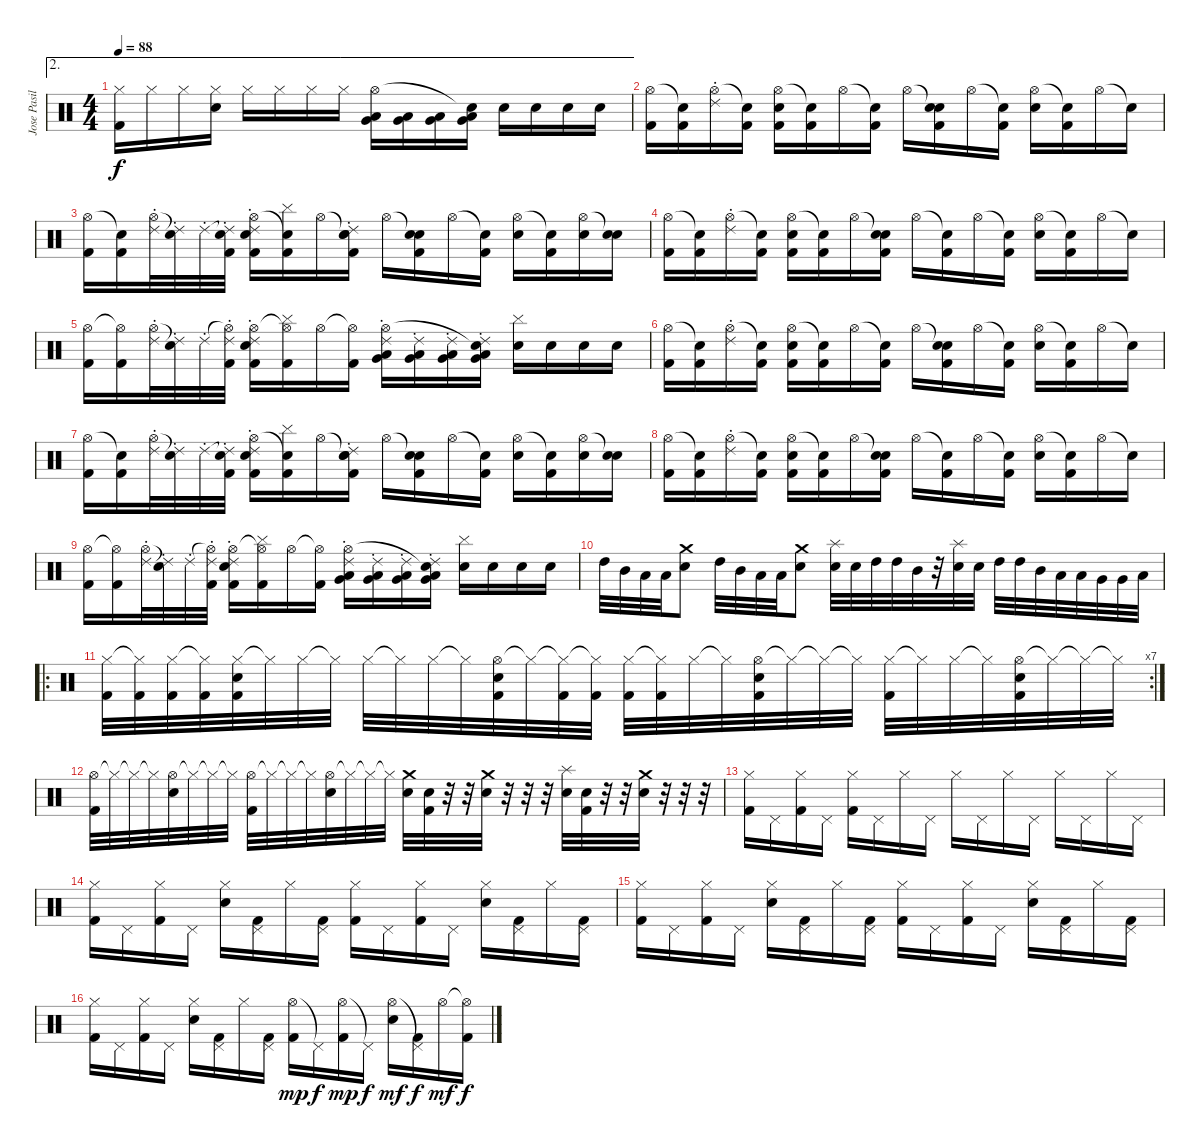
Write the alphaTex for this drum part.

\track ("Jose Pasillas/Dj Kilmore" "Jose Pasil") {instrument percussion}
\staff {score}
\articulation defaults
\ae 2
\ts (4 4)
\tempo 88
\clef neutral
\ks c
("Hi-Hat (closed)" "Kick (hit) 2").16{dy f} "Hi-Hat (closed)".16 "Hi-Hat (closed)".16 ("Hi-Hat (closed)" "Electric Snare (hit)").16 "Hi-Hat (closed)".16 "Hi-Hat (closed)".16 "Hi-Hat (closed)".16 "Hi-Hat (closed)".16 ("Low Tom (hit)" "Very Low Tom (hit)" "Hi-Hat (open)").16 ("Low Tom (hit)" "Very Low Tom (hit)").16 ("Low Tom (hit)" "Very Low Tom (hit)").16 ("Low Tom (hit)" "Very Low Tom (hit)" "Snare (hit)"{t}).16 "Electric Snare (hit)".16 "Electric Snare (hit)".16 "Electric Snare (hit)".16 "Electric Snare (hit)".16 |
("Hi-Hat (open)" "Kick (hit) 2").16 ("Snare (hit)"{t} "Kick (hit) 2").16 ("Hi-Hat (open)" "Ride (choke) 2").16 ("Snare (hit)"{t} "Kick (hit) 2").16 ("Hi-Hat (open)" "Electric Snare (hit)" "Kick (hit) 2").16 ("Snare (hit)"{t} "Kick (hit) 2").16 "Hi-Hat (open)".16 ("Snare (hit)"{t} "Kick (hit) 2").16 "Hi-Hat (open)".16 ("Snare (hit)"{t} "Electric Snare (hit)" "Kick (hit) 2").16 "Hi-Hat (open)".16 ("Snare (hit)"{t} "Kick (hit) 2").16 ("Hi-Hat (open)" "Electric Snare (hit)").16 ("Snare (hit)"{t} "Kick (hit) 2").16 "Hi-Hat (open)".16 "Snare (hit)"{t}.16 |
("Hi-Hat (open)" "Kick (hit) 2").16 ("Snare (hit)"{t} "Kick (hit) 2").16 ("Hi-Hat (open)" "Ride (choke) 2").32 ("Snare (hit)"{t} "Ride (choke) 2").32 "Ride (choke) 2".32 ("Snare (hit)"{t} "Ride (choke) 2" "Kick (hit) 2").32 ("Hi-Hat (open)" "Electric Snare (hit)" "Ride (choke) 2" "Kick (hit) 2").16 ("Snare (hit)"{t} "Cymbal (hit)" "Kick (hit) 2").16 "Hi-Hat (open)".16 ("Snare (hit)"{t} "Electric Snare (hit)" "Ride (choke) 2" "Kick (hit) 2").16 "Hi-Hat (open)".16 ("Snare (hit)"{t} "Electric Snare (hit)" "Kick (hit) 2").16 "Hi-Hat (open)".16 ("Snare (hit)"{t} "Kick (hit) 2").16 ("Hi-Hat (open)" "Electric Snare (hit)").16 ("Snare (hit)"{t} "Kick (hit) 2").16 ("Hi-Hat (open)" "Electric Snare (hit)").16 ("Snare (hit)"{t} "Electric Snare (hit)").16 |
("Hi-Hat (open)" "Kick (hit) 2").16 ("Snare (hit)"{t} "Kick (hit) 2").16 ("Hi-Hat (open)" "Ride (choke) 2").16 ("Snare (hit)"{t} "Kick (hit) 2").16 ("Hi-Hat (open)" "Electric Snare (hit)" "Kick (hit) 2").16 ("Snare (hit)"{t} "Kick (hit) 2").16 "Hi-Hat (open)".16 ("Snare (hit)"{t} "Electric Snare (hit)" "Kick (hit) 2").16 "Hi-Hat (open)".16 ("Snare (hit)"{t} "Kick (hit) 2").16 "Hi-Hat (open)".16 ("Snare (hit)"{t} "Kick (hit) 2").16 ("Hi-Hat (open)" "Electric Snare (hit)").16 ("Snare (hit)"{t} "Kick (hit) 2").16 "Hi-Hat (open)".16 "Snare (hit)"{t}.16 |
("Hi-Hat (open)" "Kick (hit) 2").16 ("Hi-Hat (open)"{t} "Kick (hit) 2").16 ("Hi-Hat (open)" "Ride (choke) 2").32 ("Snare (hit)"{t} "Ride (choke) 2").32 "Ride (choke) 2".32 ("Hi-Hat (open)"{t} "Ride (choke) 2" "Kick (hit) 2").32 ("Hi-Hat (open)" "Electric Snare (hit)" "Ride (choke) 2" "Kick (hit) 2").16 ("Hi-Hat (open)"{t} "Cymbal (hit)" "Kick (hit) 2").16 "Hi-Hat (open)".16 ("Hi-Hat (open)"{t} "Kick (hit) 2").16 ("Low Tom (hit)" "Very Low Tom (hit)" "Ride (choke) 2" "Hi-Hat (open)").16 ("Low Tom (hit)" "Very Low Tom (hit)" "Ride (choke) 2").16 ("Low Tom (hit)" "Very Low Tom (hit)" "Ride (choke) 2").16 ("Low Tom (hit)" "Very Low Tom (hit)" "Ride (choke) 2" "Snare (hit)"{t}).16 ("Electric Snare (hit)" "Cymbal (hit)").16 "Electric Snare (hit)".16 "Electric Snare (hit)".16 "Electric Snare (hit)".16 |
("Hi-Hat (open)" "Kick (hit) 2").16 ("Snare (hit)"{t} "Kick (hit) 2").16 ("Hi-Hat (open)" "Ride (choke) 2").16 ("Snare (hit)"{t} "Kick (hit) 2").16 ("Hi-Hat (open)" "Electric Snare (hit)" "Kick (hit) 2").16 ("Snare (hit)"{t} "Kick (hit) 2").16 "Hi-Hat (open)".16 ("Snare (hit)"{t} "Kick (hit) 2").16 "Hi-Hat (open)".16 ("Snare (hit)"{t} "Electric Snare (hit)" "Kick (hit) 2").16 "Hi-Hat (open)".16 ("Snare (hit)"{t} "Kick (hit) 2").16 ("Hi-Hat (open)" "Electric Snare (hit)").16 ("Snare (hit)"{t} "Kick (hit) 2").16 "Hi-Hat (open)".16 "Snare (hit)"{t}.16 |
("Hi-Hat (open)" "Kick (hit) 2").16 ("Snare (hit)"{t} "Kick (hit) 2").16 ("Hi-Hat (open)" "Ride (choke) 2").32 ("Snare (hit)"{t} "Ride (choke) 2").32 "Ride (choke) 2".32 ("Snare (hit)"{t} "Ride (choke) 2" "Kick (hit) 2").32 ("Hi-Hat (open)" "Electric Snare (hit)" "Ride (choke) 2" "Kick (hit) 2").16 ("Snare (hit)"{t} "Cymbal (hit)" "Kick (hit) 2").16 "Hi-Hat (open)".16 ("Snare (hit)"{t} "Electric Snare (hit)" "Ride (choke) 2" "Kick (hit) 2").16 "Hi-Hat (open)".16 ("Snare (hit)"{t} "Electric Snare (hit)" "Kick (hit) 2").16 "Hi-Hat (open)".16 ("Snare (hit)"{t} "Kick (hit) 2").16 ("Hi-Hat (open)" "Electric Snare (hit)").16 ("Snare (hit)"{t} "Kick (hit) 2").16 ("Hi-Hat (open)" "Electric Snare (hit)").16 ("Snare (hit)"{t} "Electric Snare (hit)").16 |
("Hi-Hat (open)" "Kick (hit) 2").16 ("Snare (hit)"{t} "Kick (hit) 2").16 ("Hi-Hat (open)" "Ride (choke) 2").16 ("Snare (hit)"{t} "Kick (hit) 2").16 ("Hi-Hat (open)" "Electric Snare (hit)" "Kick (hit) 2").16 ("Snare (hit)"{t} "Kick (hit) 2").16 "Hi-Hat (open)".16 ("Snare (hit)"{t} "Electric Snare (hit)" "Kick (hit) 2").16 "Hi-Hat (open)".16 ("Snare (hit)"{t} "Kick (hit) 2").16 "Hi-Hat (open)".16 ("Snare (hit)"{t} "Kick (hit) 2").16 ("Hi-Hat (open)" "Electric Snare (hit)").16 ("Snare (hit)"{t} "Kick (hit) 2").16 "Hi-Hat (open)".16 "Snare (hit)"{t}.16 |
("Hi-Hat (open)" "Kick (hit) 2").16 ("Hi-Hat (open)"{t} "Kick (hit) 2").16 ("Hi-Hat (open)" "Ride (choke) 2").32 ("Snare (hit)"{t} "Ride (choke) 2").32 "Ride (choke) 2".32 ("Hi-Hat (open)"{t} "Ride (choke) 2" "Kick (hit) 2").32 ("Hi-Hat (open)" "Electric Snare (hit)" "Ride (choke) 2" "Kick (hit) 2").16 ("Hi-Hat (open)"{t} "Cymbal (hit)" "Kick (hit) 2").16 "Hi-Hat (open)".16 ("Hi-Hat (open)"{t} "Kick (hit) 2").16 ("Low Tom (hit)" "Very Low Tom (hit)" "Ride (choke) 2" "Hi-Hat (open)").16 ("Low Tom (hit)" "Very Low Tom (hit)" "Ride (choke) 2").16 ("Low Tom (hit)" "Very Low Tom (hit)" "Ride (choke) 2").16 ("Low Tom (hit)" "Very Low Tom (hit)" "Ride (choke) 2" "Snare (hit)"{t}).16 ("Electric Snare (hit)" "Cymbal (hit)").16 "Electric Snare (hit)".16 "Electric Snare (hit)".16 "Electric Snare (hit)".16 |
"High Tom (hit)".32 "Mid Tom (hit)".32 "Low Tom (hit)".32 "Low Tom (hit)".32 ("Crash medium (hit)" "Electric Snare (hit)").8 "High Tom (hit)".32 "Mid Tom (hit)".32 "Low Tom (hit)".32 "Low Tom (hit)".32 ("Crash medium (hit)" "Electric Snare (hit)").8 ("Splash (hit)" "Electric Snare (hit)").32 "Electric Snare (hit)".32 "High Tom (hit)".32 "High Tom (hit)".32 "Mid Tom (hit)".32 r.32 ("Splash (hit)" "Electric Snare (hit)").32 "Electric Snare (hit)".32 "High Tom (hit)".32 "High Tom (hit)".32 "Mid Tom (hit)".32 "Low Tom (hit)".32 "Low Tom (hit)".32 "Very Low Tom (hit)".32 "Very Low Tom (hit)".32 "Low Tom (hit)".32 |
\ro
\rc 7
("Hi-Hat (closed)" "Kick (hit) 2").32 ("Hi-Hat (closed)"{t} "Kick (hit) 2").32 ("Hi-Hat (closed)" "Kick (hit) 2").32 ("Hi-Hat (closed)"{t} "Kick (hit) 2").32 ("Hi-Hat (closed)" "Electric Snare (hit)" "Kick (hit) 2").32 "Hi-Hat (closed)"{t}.32 "Hi-Hat (closed)".32 "Hi-Hat (closed)"{t}.32 "Hi-Hat (closed)".32 "Hi-Hat (closed)"{t}.32 "Hi-Hat (closed)".32 "Hi-Hat (closed)"{t}.32 ("Hi-Hat (open)" "Electric Snare (hit)" "Kick (hit) 2").32 "Hi-Hat (closed)"{t}.32 ("Hi-Hat (closed)"{t} "Kick (hit) 2").32 ("Hi-Hat (closed)"{t} "Kick (hit) 2").32 ("Hi-Hat (closed)" "Kick (hit) 2").32 ("Hi-Hat (closed)"{t} "Kick (hit) 2").32 "Hi-Hat (closed)".32 "Hi-Hat (closed)"{t}.32 ("Hi-Hat (open)" "Electric Snare (hit)" "Kick (hit) 2").32 "Hi-Hat (closed)"{t}.32 "Hi-Hat (closed)"{t}.32 "Hi-Hat (closed)"{t}.32 ("Hi-Hat (closed)" "Kick (hit) 2").32 "Hi-Hat (closed)"{t}.32 "Hi-Hat (closed)".32 "Hi-Hat (closed)"{t}.32 ("Hi-Hat (open)" "Electric Snare (hit)" "Kick (hit) 2").32 "Hi-Hat (closed)"{t}.32 "Hi-Hat (closed)"{t}.32 "Hi-Hat (closed)"{t}.32 |
("Hi-Hat (open)" "Kick (hit) 2").32 "Hi-Hat (closed)"{t}.32 "Hi-Hat (closed)"{t}.32 "Hi-Hat (closed)"{t}.32 ("Hi-Hat (open)" "Electric Snare (hit)").32 "Hi-Hat (closed)"{t}.32 "Hi-Hat (closed)"{t}.32 "Hi-Hat (closed)"{t}.32 ("Hi-Hat (open)" "Kick (hit) 2").32 "Hi-Hat (closed)"{t}.32 "Hi-Hat (closed)"{t}.32 "Hi-Hat (closed)"{t}.32 ("Hi-Hat (open)" "Electric Snare (hit)").32 "Hi-Hat (closed)"{t}.32 "Hi-Hat (closed)"{t}.32 "Hi-Hat (closed)"{t}.32 ("Crash medium (hit)" "Electric Snare (hit)").32 ("Electric Snare (hit)" "Kick (hit) 2").32 r.32 r.32 ("Crash medium (hit)" "Electric Snare (hit)").32 r.32 r.32 r.32 ("Splash (hit)" "Electric Snare (hit)").32 ("Electric Snare (hit)" "Kick (hit) 2").32 r.32 r.32 ("Crash medium (hit)" "Electric Snare (hit)").32 r.32 r.32 r.32 |
("Hi-Hat (closed)" "Kick (hit) 2").16 "Pedal Hi-Hat (hit)".16 ("Hi-Hat (closed)" "Kick (hit) 2").16 "Pedal Hi-Hat (hit)".16 ("Hi-Hat (closed)" "Kick (hit) 2").16 "Pedal Hi-Hat (hit)".16 "Hi-Hat (closed)".16 "Pedal Hi-Hat (hit)".16 "Hi-Hat (closed)".16 "Pedal Hi-Hat (hit)".16 "Hi-Hat (closed)".16 "Pedal Hi-Hat (hit)".16 "Hi-Hat (closed)".16 "Pedal Hi-Hat (hit)".16 "Hi-Hat (closed)".16 "Pedal Hi-Hat (hit)".16 |
("Hi-Hat (closed)" "Kick (hit) 2").16 "Pedal Hi-Hat (hit)".16 ("Hi-Hat (closed)" "Kick (hit) 2").16 "Pedal Hi-Hat (hit)".16 ("Hi-Hat (closed)" "Electric Snare (hit)").16 ("Pedal Hi-Hat (hit)" "Kick (hit) 2").16 "Hi-Hat (closed)".16 ("Pedal Hi-Hat (hit)" "Kick (hit) 2").16 ("Hi-Hat (closed)" "Kick (hit) 2").16 "Pedal Hi-Hat (hit)".16 ("Hi-Hat (closed)" "Kick (hit) 2").16 "Pedal Hi-Hat (hit)".16 ("Hi-Hat (closed)" "Electric Snare (hit)").16 ("Pedal Hi-Hat (hit)" "Kick (hit) 2").16 "Hi-Hat (closed)".16 ("Pedal Hi-Hat (hit)" "Kick (hit) 2").16 |
("Hi-Hat (closed)" "Kick (hit) 2").16 "Pedal Hi-Hat (hit)".16 ("Hi-Hat (closed)" "Kick (hit) 2").16 "Pedal Hi-Hat (hit)".16 ("Hi-Hat (closed)" "Electric Snare (hit)").16 ("Pedal Hi-Hat (hit)" "Kick (hit) 2").16 "Hi-Hat (closed)".16 ("Pedal Hi-Hat (hit)" "Kick (hit) 2").16 ("Hi-Hat (closed)" "Kick (hit) 2").16 "Pedal Hi-Hat (hit)".16 ("Hi-Hat (closed)" "Kick (hit) 2").16 "Pedal Hi-Hat (hit)".16 ("Hi-Hat (closed)" "Electric Snare (hit)").16 ("Pedal Hi-Hat (hit)" "Kick (hit) 2").16 "Hi-Hat (closed)".16 ("Pedal Hi-Hat (hit)" "Kick (hit) 2").16 |
("Hi-Hat (closed)" "Kick (hit) 2").16 "Pedal Hi-Hat (hit)".16 ("Hi-Hat (closed)" "Kick (hit) 2").16 "Pedal Hi-Hat (hit)".16 ("Hi-Hat (closed)" "Electric Snare (hit)").16 ("Pedal Hi-Hat (hit)" "Kick (hit) 2").16 "Hi-Hat (closed)".16 ("Pedal Hi-Hat (hit)" "Kick (hit) 2").16 ("Hi-Hat (open)" "Kick (hit) 2").16{dy mp} "Pedal Hi-Hat (hit)"{t}.16{dy f} ("Hi-Hat (open)" "Kick (hit) 2").16{dy mp} "Pedal Hi-Hat (hit)"{t}.16{dy f} ("Hi-Hat (open)" "Electric Snare (hit)").16{dy mf} ("Pedal Hi-Hat (hit)"{t} "Kick (hit) 2").16{dy f} "Hi-Hat (open)".16{dy mf} ("Hi-Hat (open)"{t} "Kick (hit) 2").16{dy f}
